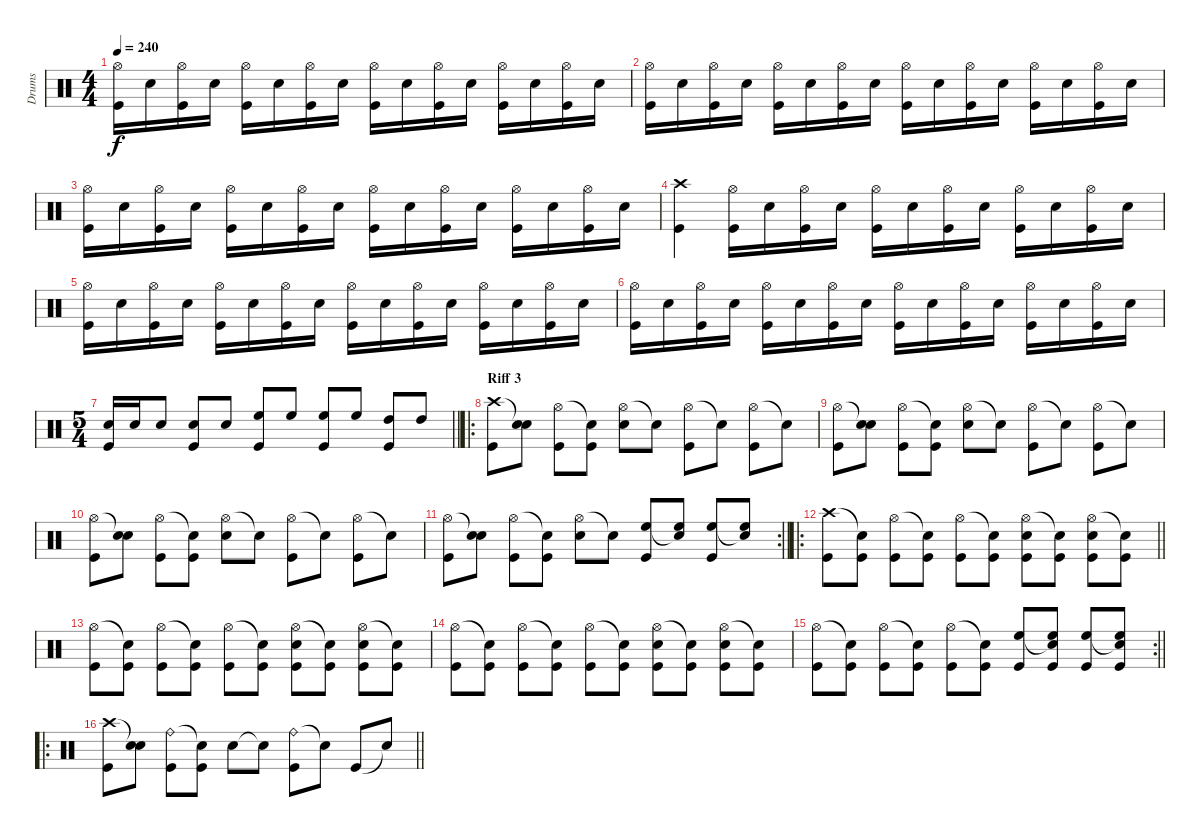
\track ("Drums " "Drums ") {instrument percussion}
\staff {score}
\articulation defaults
\ts (4 4)
\tempo 240
\clef neutral
\ks c
("Hi-Hat (open)" "Kick (hit)").16{dy f} "Electric Snare (hit)".16 ("Hi-Hat (open)" "Kick (hit)").16 "Electric Snare (hit)".16 ("Hi-Hat (open)" "Kick (hit)").16 "Electric Snare (hit)".16 ("Hi-Hat (open)" "Kick (hit)").16 "Electric Snare (hit)".16 ("Hi-Hat (open)" "Kick (hit)").16 "Electric Snare (hit)".16 ("Hi-Hat (open)" "Kick (hit)").16 "Electric Snare (hit)".16 ("Hi-Hat (open)" "Kick (hit)").16 "Electric Snare (hit)".16 ("Hi-Hat (open)" "Kick (hit)").16 "Electric Snare (hit)".16 |
("Hi-Hat (open)" "Kick (hit)").16 "Electric Snare (hit)".16 ("Hi-Hat (open)" "Kick (hit)").16 "Electric Snare (hit)".16 ("Hi-Hat (open)" "Kick (hit)").16 "Electric Snare (hit)".16 ("Hi-Hat (open)" "Kick (hit)").16 "Electric Snare (hit)".16 ("Hi-Hat (open)" "Kick (hit)").16 "Electric Snare (hit)".16 ("Hi-Hat (open)" "Kick (hit)").16 "Electric Snare (hit)".16 ("Hi-Hat (open)" "Kick (hit)").16 "Electric Snare (hit)".16 ("Hi-Hat (open)" "Kick (hit)").16 "Electric Snare (hit)".16 |
("Hi-Hat (open)" "Kick (hit)").16 "Electric Snare (hit)".16 ("Hi-Hat (open)" "Kick (hit)").16 "Electric Snare (hit)".16 ("Hi-Hat (open)" "Kick (hit)").16 "Electric Snare (hit)".16 ("Hi-Hat (open)" "Kick (hit)").16 "Electric Snare (hit)".16 ("Hi-Hat (open)" "Kick (hit)").16 "Electric Snare (hit)".16 ("Hi-Hat (open)" "Kick (hit)").16 "Electric Snare (hit)".16 ("Hi-Hat (open)" "Kick (hit)").16 "Electric Snare (hit)".16 ("Hi-Hat (open)" "Kick (hit)").16 "Electric Snare (hit)".16 |
("Crash high (hit)" "Kick (hit)").4 ("Hi-Hat (open)" "Kick (hit)").16 "Electric Snare (hit)".16 ("Hi-Hat (open)" "Kick (hit)").16 "Electric Snare (hit)".16 ("Hi-Hat (open)" "Kick (hit)").16 "Electric Snare (hit)".16 ("Hi-Hat (open)" "Kick (hit)").16 "Electric Snare (hit)".16 ("Hi-Hat (open)" "Kick (hit)").16 "Electric Snare (hit)".16 ("Hi-Hat (open)" "Kick (hit)").16 "Electric Snare (hit)".16 |
("Hi-Hat (open)" "Kick (hit)").16 "Electric Snare (hit)".16 ("Hi-Hat (open)" "Kick (hit)").16 "Electric Snare (hit)".16 ("Hi-Hat (open)" "Kick (hit)").16 "Electric Snare (hit)".16 ("Hi-Hat (open)" "Kick (hit)").16 "Electric Snare (hit)".16 ("Hi-Hat (open)" "Kick (hit)").16 "Electric Snare (hit)".16 ("Hi-Hat (open)" "Kick (hit)").16 "Electric Snare (hit)".16 ("Hi-Hat (open)" "Kick (hit)").16 "Electric Snare (hit)".16 ("Hi-Hat (open)" "Kick (hit)").16 "Electric Snare (hit)".16 |
("Hi-Hat (open)" "Kick (hit)").16 "Electric Snare (hit)".16 ("Hi-Hat (open)" "Kick (hit)").16 "Electric Snare (hit)".16 ("Hi-Hat (open)" "Kick (hit)").16 "Electric Snare (hit)".16 ("Hi-Hat (open)" "Kick (hit)").16 "Electric Snare (hit)".16 ("Hi-Hat (open)" "Kick (hit)").16 "Electric Snare (hit)".16 ("Hi-Hat (open)" "Kick (hit)").16 "Electric Snare (hit)".16 ("Hi-Hat (open)" "Kick (hit)").16 "Electric Snare (hit)".16 ("Hi-Hat (open)" "Kick (hit)").16 "Electric Snare (hit)".16 |
\ts (5 4)
\barLineRight lightlight
("Electric Snare (hit)" "Kick (hit)").16 "Electric Snare (hit)".16 "Electric Snare (hit)".8 ("Electric Snare (hit)" "Kick (hit)").8 "Electric Snare (hit)".8 ("High Floor Tom (hit)" "Kick (hit)").8 "High Floor Tom (hit)".8 ("High Floor Tom (hit)" "Kick (hit)").8 "High Floor Tom (hit)".8 ("High Tom (hit)" "Kick (hit)").8 "High Tom (hit)".8 |
\ro
\section ("" "Riff 3 ")
("Crash high (hit)" "Kick (hit)").8 ("Snare (hit)"{t} "Electric Snare (hit)").8 ("Hi-Hat (open)" "Kick (hit)").8 ("Snare (hit)"{t} "Kick (hit)").8 ("Hi-Hat (open)" "Electric Snare (hit)").8 "Snare (hit)"{t}.8 ("Hi-Hat (open)" "Kick (hit)").8 "Snare (hit)"{t}.8 ("Hi-Hat (open)" "Kick (hit)").8 "Snare (hit)"{t}.8 |
("Hi-Hat (open)" "Kick (hit)").8 ("Snare (hit)"{t} "Electric Snare (hit)").8 ("Hi-Hat (open)" "Kick (hit)").8 ("Snare (hit)"{t} "Kick (hit)").8 ("Hi-Hat (open)" "Electric Snare (hit)").8 "Snare (hit)"{t}.8 ("Hi-Hat (open)" "Kick (hit)").8 "Snare (hit)"{t}.8 ("Hi-Hat (open)" "Kick (hit)").8 "Snare (hit)"{t}.8 |
("Hi-Hat (open)" "Kick (hit)").8 ("Snare (hit)"{t} "Electric Snare (hit)").8 ("Hi-Hat (open)" "Kick (hit)").8 ("Snare (hit)"{t} "Kick (hit)").8 ("Hi-Hat (open)" "Electric Snare (hit)").8 "Snare (hit)"{t}.8 ("Hi-Hat (open)" "Kick (hit)").8 "Snare (hit)"{t}.8 ("Hi-Hat (open)" "Kick (hit)").8 "Snare (hit)"{t}.8 |
\rc 2
\barLineRight lightlight
("Hi-Hat (open)" "Kick (hit)").8 ("Snare (hit)"{t} "Electric Snare (hit)").8 ("Hi-Hat (open)" "Kick (hit)").8 ("Snare (hit)"{t} "Kick (hit)").8 ("Hi-Hat (open)" "Electric Snare (hit)").8 "Snare (hit)"{t}.8 ("High Floor Tom (hit)" "Kick (hit)").8 ("Snare (hit)"{t} "High Floor Tom (hit)").8 ("High Floor Tom (hit)" "Kick (hit)").8 ("Snare (hit)"{t} "High Floor Tom (hit)").8 |
\ro
\section ("" "")
\barLineRight lightlight
("Crash high (hit)" "Kick (hit)").8 ("Snare (hit)"{t} "Kick (hit)").8 ("Hi-Hat (open)" "Kick (hit)").8 ("Snare (hit)"{t} "Kick (hit)").8 ("Hi-Hat (open)" "Kick (hit)").8 ("Snare (hit)"{t} "Kick (hit)").8 ("Hi-Hat (open)" "Electric Snare (hit)" "Kick (hit)").8 ("Snare (hit)"{t} "Kick (hit)").8 ("Hi-Hat (open)" "Electric Snare (hit)" "Kick (hit)").8 ("Snare (hit)"{t} "Kick (hit)").8 |
("Hi-Hat (open)" "Kick (hit)").8 ("Snare (hit)"{t} "Kick (hit)").8 ("Hi-Hat (open)" "Kick (hit)").8 ("Snare (hit)"{t} "Kick (hit)").8 ("Hi-Hat (open)" "Kick (hit)").8 ("Snare (hit)"{t} "Kick (hit)").8 ("Hi-Hat (open)" "Electric Snare (hit)" "Kick (hit)").8 ("Snare (hit)"{t} "Kick (hit)").8 ("Hi-Hat (open)" "Electric Snare (hit)" "Kick (hit)").8 ("Snare (hit)"{t} "Kick (hit)").8 |
("Hi-Hat (open)" "Kick (hit)").8 ("Snare (hit)"{t} "Kick (hit)").8 ("Hi-Hat (open)" "Kick (hit)").8 ("Snare (hit)"{t} "Kick (hit)").8 ("Hi-Hat (open)" "Kick (hit)").8 ("Snare (hit)"{t} "Kick (hit)").8 ("Hi-Hat (open)" "Electric Snare (hit)" "Kick (hit)").8 ("Snare (hit)"{t} "Kick (hit)").8 ("Hi-Hat (open)" "Electric Snare (hit)" "Kick (hit)").8 ("Snare (hit)"{t} "Kick (hit)").8 |
\rc 2
\barLineRight lightlight
("Hi-Hat (open)" "Kick (hit)").8 ("Snare (hit)"{t} "Kick (hit)").8 ("Hi-Hat (open)" "Kick (hit)").8 ("Snare (hit)"{t} "Kick (hit)").8 ("Hi-Hat (open)" "Kick (hit)").8 ("Snare (hit)"{t} "Kick (hit)").8 ("High Floor Tom (hit)" "Kick (hit)").8 ("Snare (hit)"{t} "High Floor Tom (hit)" "Kick (hit)").8 ("High Floor Tom (hit)" "Kick (hit)").8 ("Snare (hit)"{t} "High Floor Tom (hit)" "Kick (hit)").8 |
\ro
\barLineRight lightlight
("Crash high (hit)" "Kick (hit)").8 ("Snare (hit)"{t} "Electric Snare (hit)").8 ("Ride (bell)" "Kick (hit)").8 ("Snare (hit)"{t} "Kick (hit)").8 "Electric Snare (hit)".8 "Snare (hit)"{t}.8 ("Ride (bell)" "Kick (hit)").8 "Snare (hit)"{t}.8 "Kick (hit)".8 "Snare (hit)"{t}.8
